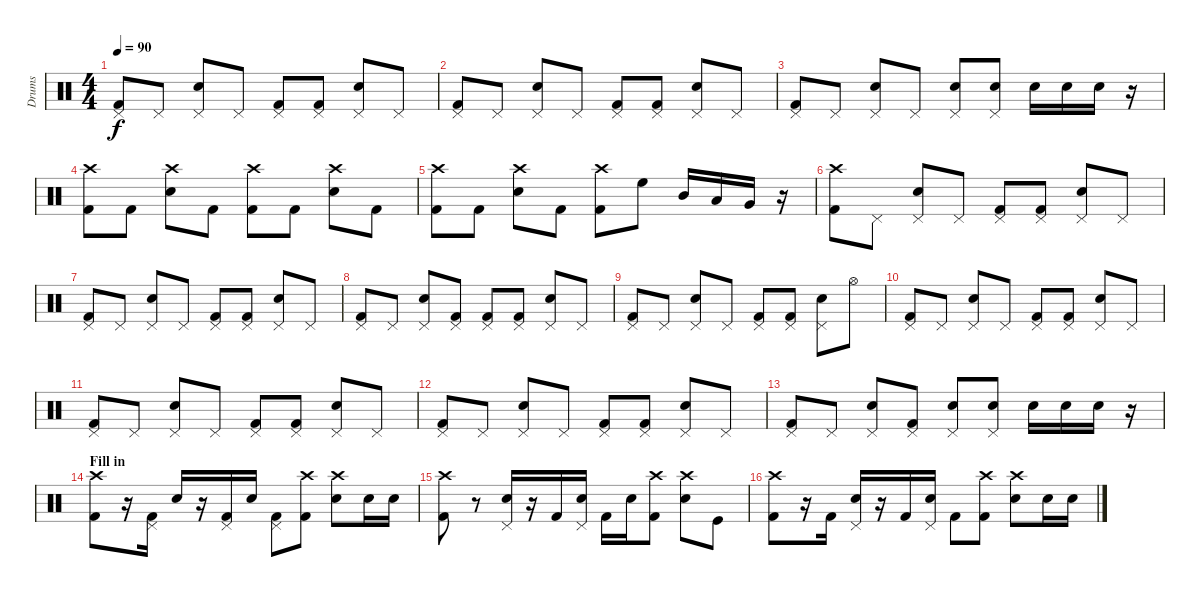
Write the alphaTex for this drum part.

\track ("Drums" "Drums") {instrument percussion}
\staff {score}
\articulation defaults
\ts (4 4)
\tempo 90
\clef neutral
\ks c
("Pedal Hi-Hat (hit)" "Kick (hit) 2").8{dy f} "Pedal Hi-Hat (hit)".8 ("Pedal Hi-Hat (hit)" "Snare (hit) 2").8 "Pedal Hi-Hat (hit)".8 ("Pedal Hi-Hat (hit)" "Kick (hit) 2").8 ("Pedal Hi-Hat (hit)" "Kick (hit) 2").8 ("Pedal Hi-Hat (hit)" "Snare (hit) 2").8 "Pedal Hi-Hat (hit)".8 |
("Pedal Hi-Hat (hit)" "Kick (hit) 2").8 "Pedal Hi-Hat (hit)".8 ("Pedal Hi-Hat (hit)" "Snare (hit) 2").8 "Pedal Hi-Hat (hit)".8 ("Pedal Hi-Hat (hit)" "Kick (hit) 2").8 ("Pedal Hi-Hat (hit)" "Kick (hit) 2").8 ("Pedal Hi-Hat (hit)" "Snare (hit) 2").8 "Pedal Hi-Hat (hit)".8 |
("Pedal Hi-Hat (hit)" "Kick (hit) 2").8 "Pedal Hi-Hat (hit)".8 ("Pedal Hi-Hat (hit)" "Snare (hit) 2").8 "Pedal Hi-Hat (hit)".8 ("Pedal Hi-Hat (hit)" "Snare (hit) 2").8 ("Pedal Hi-Hat (hit)" "Snare (hit) 2").8 "Snare (hit) 2".16 "Snare (hit) 2".16 "Snare (hit) 2".16 r.16 |
("Crash high (hit)" "Kick (hit) 2").8 "Kick (hit) 2".8 ("Crash high (hit)" "Snare (hit) 2").8 "Kick (hit) 2".8 ("Crash high (hit)" "Kick (hit) 2").8 "Kick (hit) 2".8 ("Crash high (hit)" "Snare (hit) 2").8 "Kick (hit) 2".8 |
("Crash high (hit)" "Kick (hit) 2").8 "Kick (hit) 2".8 ("Crash high (hit)" "Snare (hit) 2").8 "Kick (hit) 2".8 ("Crash high (hit)" "Kick (hit) 2").8 "High Floor Tom (hit)".8 "Mid Tom (hit)".16 "Low Tom (hit)".16 "Very Low Tom (hit)".16 r.16 |
("Crash high (hit)" "Kick (hit) 2").8 "Pedal Hi-Hat (hit)".8 ("Pedal Hi-Hat (hit)" "Snare (hit) 2").8 "Pedal Hi-Hat (hit)".8 ("Pedal Hi-Hat (hit)" "Kick (hit) 2").8 ("Pedal Hi-Hat (hit)" "Kick (hit) 2").8 ("Pedal Hi-Hat (hit)" "Snare (hit) 2").8 "Pedal Hi-Hat (hit)".8 |
("Pedal Hi-Hat (hit)" "Kick (hit) 2").8 "Pedal Hi-Hat (hit)".8 ("Pedal Hi-Hat (hit)" "Snare (hit) 2").8 "Pedal Hi-Hat (hit)".8 ("Pedal Hi-Hat (hit)" "Kick (hit) 2").8 ("Pedal Hi-Hat (hit)" "Kick (hit) 2").8 ("Pedal Hi-Hat (hit)" "Snare (hit) 2").8 "Pedal Hi-Hat (hit)".8 |
("Pedal Hi-Hat (hit)" "Kick (hit) 2").8 "Pedal Hi-Hat (hit)".8 ("Pedal Hi-Hat (hit)" "Snare (hit) 2").8 ("Pedal Hi-Hat (hit)" "Kick (hit) 2").8 ("Pedal Hi-Hat (hit)" "Kick (hit) 2").8 ("Pedal Hi-Hat (hit)" "Kick (hit) 2").8 ("Pedal Hi-Hat (hit)" "Snare (hit) 2").8 "Pedal Hi-Hat (hit)".8 |
("Pedal Hi-Hat (hit)" "Kick (hit) 2").8 "Pedal Hi-Hat (hit)".8 ("Pedal Hi-Hat (hit)" "Snare (hit) 2").8 "Pedal Hi-Hat (hit)".8 ("Pedal Hi-Hat (hit)" "Kick (hit) 2").8 ("Pedal Hi-Hat (hit)" "Kick (hit) 2").8 ("Pedal Hi-Hat (hit)" "Snare (hit) 2").8 "Hi-Hat (open)".8 |
("Pedal Hi-Hat (hit)" "Kick (hit) 2").8 "Pedal Hi-Hat (hit)".8 ("Pedal Hi-Hat (hit)" "Snare (hit) 2").8 "Pedal Hi-Hat (hit)".8 ("Pedal Hi-Hat (hit)" "Kick (hit) 2").8 ("Pedal Hi-Hat (hit)" "Kick (hit) 2").8 ("Pedal Hi-Hat (hit)" "Snare (hit) 2").8 "Pedal Hi-Hat (hit)".8 |
("Pedal Hi-Hat (hit)" "Kick (hit) 2").8 "Pedal Hi-Hat (hit)".8 ("Pedal Hi-Hat (hit)" "Snare (hit) 2").8 "Pedal Hi-Hat (hit)".8 ("Pedal Hi-Hat (hit)" "Kick (hit) 2").8 ("Pedal Hi-Hat (hit)" "Kick (hit) 2").8 ("Pedal Hi-Hat (hit)" "Snare (hit) 2").8 "Pedal Hi-Hat (hit)".8 |
("Pedal Hi-Hat (hit)" "Kick (hit) 2").8 "Pedal Hi-Hat (hit)".8 ("Pedal Hi-Hat (hit)" "Snare (hit) 2").8 "Pedal Hi-Hat (hit)".8 ("Pedal Hi-Hat (hit)" "Kick (hit) 2").8 ("Pedal Hi-Hat (hit)" "Kick (hit) 2").8 ("Pedal Hi-Hat (hit)" "Snare (hit) 2").8 "Pedal Hi-Hat (hit)".8 |
("Pedal Hi-Hat (hit)" "Kick (hit) 2").8 "Pedal Hi-Hat (hit)".8 ("Pedal Hi-Hat (hit)" "Snare (hit) 2").8 ("Pedal Hi-Hat (hit)" "Kick (hit) 2").8 ("Pedal Hi-Hat (hit)" "Snare (hit) 2").8 ("Pedal Hi-Hat (hit)" "Snare (hit) 2").8 "Snare (hit) 2".16 "Snare (hit) 2".16 "Snare (hit) 2".16 r.16 |
\section ("" "Fill in")
("Crash high (hit)" "Kick (hit) 2").8 r.16 ("Pedal Hi-Hat (hit)" "Kick (hit) 2").16 "Snare (hit) 2".16 r.16 ("Pedal Hi-Hat (hit)" "Kick (hit) 2").16 "Snare (hit) 2".16 ("Pedal Hi-Hat (hit)" "Kick (hit) 2").8 ("Crash high (hit)" "Kick (hit) 2").8 ("Crash high (hit)" "Snare (hit) 2").8 "Snare (hit) 2".16 "Snare (hit) 2".16 |
("Crash high (hit)" "Kick (hit) 2").8 r.8 ("Pedal Hi-Hat (hit)" "Snare (hit) 2").16 r.16 "Kick (hit) 2".16 ("Pedal Hi-Hat (hit)" "Snare (hit) 2").16 "Kick (hit) 2".16 "Snare (hit) 2".16 ("Crash high (hit)" "Kick (hit) 2").8 ("Crash high (hit)" "Snare (hit) 2").8 "Kick (hit)".8 |
("Crash high (hit)" "Kick (hit) 2").8 r.16 "Kick (hit) 2".16 ("Pedal Hi-Hat (hit)" "Snare (hit) 2").16 r.16 "Kick (hit) 2".16 ("Pedal Hi-Hat (hit)" "Snare (hit) 2").16 "Kick (hit) 2".8 ("Crash high (hit)" "Kick (hit) 2").8 ("Crash high (hit)" "Snare (hit) 2").8 "Snare (hit) 2".16 "Snare (hit) 2".16
